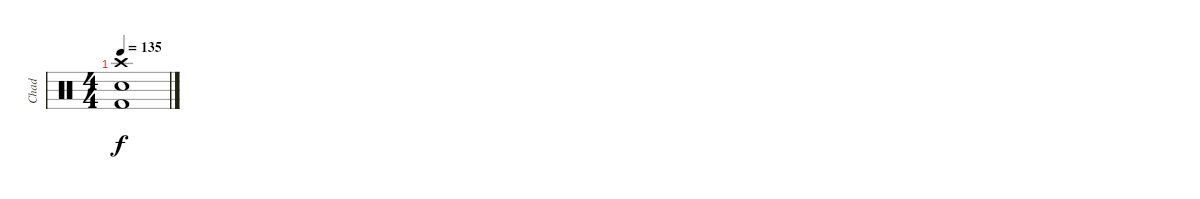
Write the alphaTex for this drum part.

\track ("Chad" "Chad") {instrument percussion}
\staff {score}
\articulation defaults
\ts (4 4)
\tempo 135
\clef neutral
\ks c
("Crash high (hit)" "Electric Snare (hit)" "Kick (hit) 2").1{dy f}
